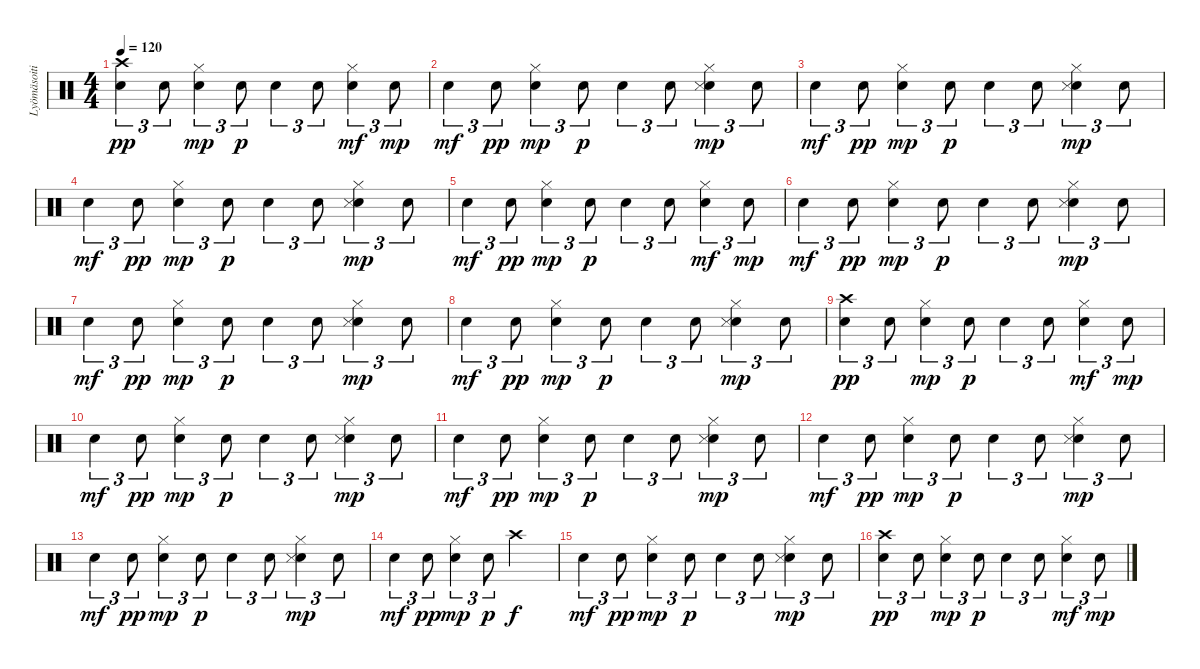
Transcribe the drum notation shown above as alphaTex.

\track ("Lyömäsoitin" "Lyömäsoiti") {instrument percussion}
\staff {score}
\articulation defaults
\ts (4 4)
\tempo 120
\clef neutral
\ks c
("Snare (hit) 2" "Crash high (hit)").4{tu (3 2) dy pp} "Snare (hit) 2".8{tu (3 2)} ("Snare (hit) 2" "Hi-Hat (closed)").4{tu (3 2) dy mp} "Snare (hit) 2".8{tu (3 2) dy p} "Snare (hit) 2".4{tu (3 2)} "Snare (hit) 2".8{tu (3 2)} ("Snare (hit) 2" "Hi-Hat (closed)").4{tu (3 2) dy mf} "Snare (hit) 2".8{tu (3 2) dy mp} |
"Snare (hit) 2".4{tu (3 2) dy mf} "Snare (hit) 2".8{tu (3 2) dy pp} ("Snare (hit) 2" "Hi-Hat (closed)").4{tu (3 2) dy mp} "Snare (hit) 2".8{tu (3 2) dy p} "Snare (hit) 2".4{tu (3 2)} "Snare (hit) 2".8{tu (3 2)} ("Snare (hit) 2" "Hi-Hat (closed)" "Snare (side stick) 3").4{tu (3 2) dy mp} "Snare (hit) 2".8{tu (3 2)} |
"Snare (hit) 2".4{tu (3 2) dy mf} "Snare (hit) 2".8{tu (3 2) dy pp} ("Snare (hit) 2" "Hi-Hat (closed)").4{tu (3 2) dy mp} "Snare (hit) 2".8{tu (3 2) dy p} "Snare (hit) 2".4{tu (3 2)} "Snare (hit) 2".8{tu (3 2)} ("Snare (hit) 2" "Hi-Hat (closed)" "Snare (side stick) 3").4{tu (3 2) dy mp} "Snare (hit) 2".8{tu (3 2)} |
"Snare (hit) 2".4{tu (3 2) dy mf} "Snare (hit) 2".8{tu (3 2) dy pp} ("Snare (hit) 2" "Hi-Hat (closed)").4{tu (3 2) dy mp} "Snare (hit) 2".8{tu (3 2) dy p} "Snare (hit) 2".4{tu (3 2)} "Snare (hit) 2".8{tu (3 2)} ("Snare (hit) 2" "Hi-Hat (closed)" "Snare (side stick) 3").4{tu (3 2) dy mp} "Snare (hit) 2".8{tu (3 2)} |
"Snare (hit) 2".4{tu (3 2) dy mf} "Snare (hit) 2".8{tu (3 2) dy pp} ("Snare (hit) 2" "Hi-Hat (closed)").4{tu (3 2) dy mp} "Snare (hit) 2".8{tu (3 2) dy p} "Snare (hit) 2".4{tu (3 2)} "Snare (hit) 2".8{tu (3 2)} ("Snare (hit) 2" "Hi-Hat (closed)").4{tu (3 2) dy mf} "Snare (hit) 2".8{tu (3 2) dy mp} |
"Snare (hit) 2".4{tu (3 2) dy mf} "Snare (hit) 2".8{tu (3 2) dy pp} ("Snare (hit) 2" "Hi-Hat (closed)").4{tu (3 2) dy mp} "Snare (hit) 2".8{tu (3 2) dy p} "Snare (hit) 2".4{tu (3 2)} "Snare (hit) 2".8{tu (3 2)} ("Snare (hit) 2" "Hi-Hat (closed)" "Snare (side stick) 3").4{tu (3 2) dy mp} "Snare (hit) 2".8{tu (3 2)} |
"Snare (hit) 2".4{tu (3 2) dy mf} "Snare (hit) 2".8{tu (3 2) dy pp} ("Snare (hit) 2" "Hi-Hat (closed)").4{tu (3 2) dy mp} "Snare (hit) 2".8{tu (3 2) dy p} "Snare (hit) 2".4{tu (3 2)} "Snare (hit) 2".8{tu (3 2)} ("Snare (hit) 2" "Hi-Hat (closed)" "Snare (side stick) 3").4{tu (3 2) dy mp} "Snare (hit) 2".8{tu (3 2)} |
"Snare (hit) 2".4{tu (3 2) dy mf} "Snare (hit) 2".8{tu (3 2) dy pp} ("Snare (hit) 2" "Hi-Hat (closed)").4{tu (3 2) dy mp} "Snare (hit) 2".8{tu (3 2) dy p} "Snare (hit) 2".4{tu (3 2)} "Snare (hit) 2".8{tu (3 2)} ("Snare (hit) 2" "Hi-Hat (closed)" "Snare (side stick) 3").4{tu (3 2) dy mp} "Snare (hit) 2".8{tu (3 2)} |
("Snare (hit) 2" "Crash high (hit)").4{tu (3 2) dy pp} "Snare (hit) 2".8{tu (3 2)} ("Snare (hit) 2" "Hi-Hat (closed)").4{tu (3 2) dy mp} "Snare (hit) 2".8{tu (3 2) dy p} "Snare (hit) 2".4{tu (3 2)} "Snare (hit) 2".8{tu (3 2)} ("Snare (hit) 2" "Hi-Hat (closed)").4{tu (3 2) dy mf} "Snare (hit) 2".8{tu (3 2) dy mp} |
"Snare (hit) 2".4{tu (3 2) dy mf} "Snare (hit) 2".8{tu (3 2) dy pp} ("Snare (hit) 2" "Hi-Hat (closed)").4{tu (3 2) dy mp} "Snare (hit) 2".8{tu (3 2) dy p} "Snare (hit) 2".4{tu (3 2)} "Snare (hit) 2".8{tu (3 2)} ("Snare (hit) 2" "Hi-Hat (closed)" "Snare (side stick) 3").4{tu (3 2) dy mp} "Snare (hit) 2".8{tu (3 2)} |
"Snare (hit) 2".4{tu (3 2) dy mf} "Snare (hit) 2".8{tu (3 2) dy pp} ("Snare (hit) 2" "Hi-Hat (closed)").4{tu (3 2) dy mp} "Snare (hit) 2".8{tu (3 2) dy p} "Snare (hit) 2".4{tu (3 2)} "Snare (hit) 2".8{tu (3 2)} ("Snare (hit) 2" "Hi-Hat (closed)" "Snare (side stick) 3").4{tu (3 2) dy mp} "Snare (hit) 2".8{tu (3 2)} |
"Snare (hit) 2".4{tu (3 2) dy mf} "Snare (hit) 2".8{tu (3 2) dy pp} ("Snare (hit) 2" "Hi-Hat (closed)").4{tu (3 2) dy mp} "Snare (hit) 2".8{tu (3 2) dy p} "Snare (hit) 2".4{tu (3 2)} "Snare (hit) 2".8{tu (3 2)} ("Snare (hit) 2" "Hi-Hat (closed)" "Snare (side stick) 3").4{tu (3 2) dy mp} "Snare (hit) 2".8{tu (3 2)} |
"Snare (hit) 2".4{tu (3 2) dy mf} "Snare (hit) 2".8{tu (3 2) dy pp} ("Snare (hit) 2" "Hi-Hat (closed)").4{tu (3 2) dy mp} "Snare (hit) 2".8{tu (3 2) dy p} "Snare (hit) 2".4{tu (3 2)} "Snare (hit) 2".8{tu (3 2)} ("Snare (hit) 2" "Hi-Hat (closed)" "Snare (side stick) 3").4{tu (3 2) dy mp} "Snare (hit) 2".8{tu (3 2)} |
"Snare (hit) 2".4{tu (3 2) dy mf} "Snare (hit) 2".8{tu (3 2) dy pp} ("Snare (hit) 2" "Hi-Hat (closed)").4{tu (3 2) dy mp} "Snare (hit) 2".8{tu (3 2) dy p} "Crash high (hit)".2{dy f} |
"Snare (hit) 2".4{tu (3 2) dy mf} "Snare (hit) 2".8{tu (3 2) dy pp} ("Snare (hit) 2" "Hi-Hat (closed)").4{tu (3 2) dy mp} "Snare (hit) 2".8{tu (3 2) dy p} "Snare (hit) 2".4{tu (3 2)} "Snare (hit) 2".8{tu (3 2)} ("Snare (hit) 2" "Hi-Hat (closed)" "Snare (side stick) 3").4{tu (3 2) dy mp} "Snare (hit) 2".8{tu (3 2)} |
("Snare (hit) 2" "Crash high (hit)").4{tu (3 2) dy pp} "Snare (hit) 2".8{tu (3 2)} ("Snare (hit) 2" "Hi-Hat (closed)").4{tu (3 2) dy mp} "Snare (hit) 2".8{tu (3 2) dy p} "Snare (hit) 2".4{tu (3 2)} "Snare (hit) 2".8{tu (3 2)} ("Snare (hit) 2" "Hi-Hat (closed)").4{tu (3 2) dy mf} "Snare (hit) 2".8{tu (3 2) dy mp}
